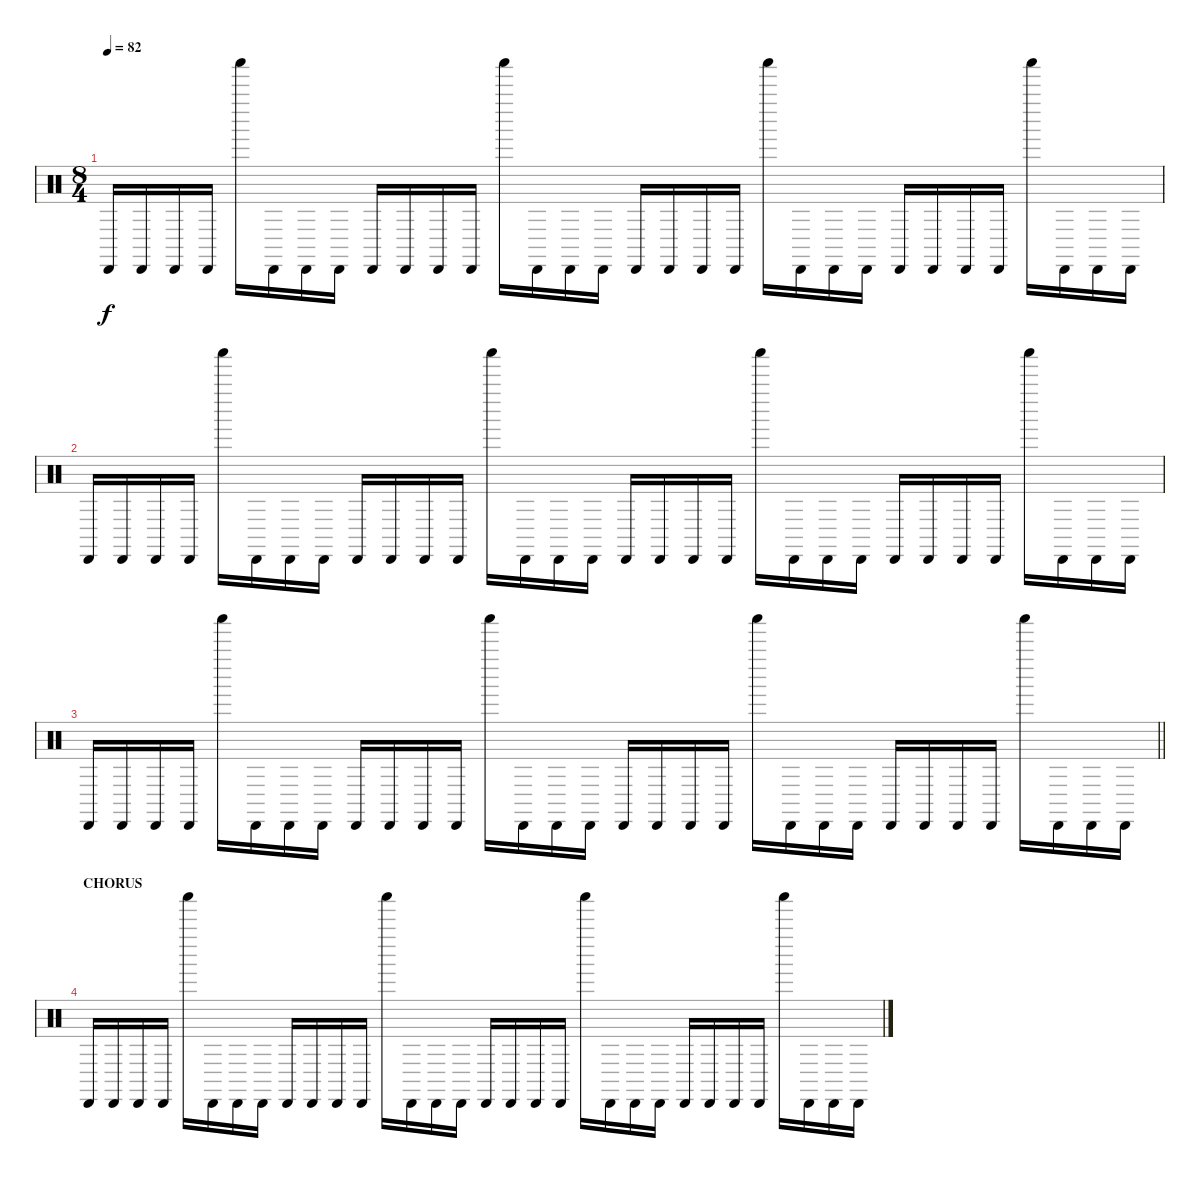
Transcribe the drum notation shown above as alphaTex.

\track "" {instrument percussion}
\staff {score}
\articulation defaults
\ts (8 4)
\tempo 82
\clef neutral
\ks c "Cabasa (hit)".16{dy f} "Cabasa (hit)".16 "Cabasa (hit)".16 "Cabasa (hit)".16 "Shaker (hit)".16 "Cabasa (hit)".16 "Cabasa (hit)".16 "Cabasa (hit)".16 "Cabasa (hit)".16 "Cabasa (hit)".16 "Cabasa (hit)".16 "Cabasa (hit)".16 "Shaker (hit)".16 "Cabasa (hit)".16 "Cabasa (hit)".16 "Cabasa (hit)".16 "Cabasa (hit)".16 "Cabasa (hit)".16 "Cabasa (hit)".16 "Cabasa (hit)".16 "Shaker (hit)".16 "Cabasa (hit)".16 "Cabasa (hit)".16 "Cabasa (hit)".16 "Cabasa (hit)".16 "Cabasa (hit)".16 "Cabasa (hit)".16 "Cabasa (hit)".16 "Shaker (hit)".16 "Cabasa (hit)".16 "Cabasa (hit)".16 "Cabasa (hit)".16
|
"Cabasa (hit)".16 "Cabasa (hit)".16 "Cabasa (hit)".16 "Cabasa (hit)".16 "Shaker (hit)".16 "Cabasa (hit)".16 "Cabasa (hit)".16 "Cabasa (hit)".16 "Cabasa (hit)".16 "Cabasa (hit)".16 "Cabasa (hit)".16 "Cabasa (hit)".16 "Shaker (hit)".16 "Cabasa (hit)".16 "Cabasa (hit)".16 "Cabasa (hit)".16 "Cabasa (hit)".16 "Cabasa (hit)".16 "Cabasa (hit)".16 "Cabasa (hit)".16 "Shaker (hit)".16 "Cabasa (hit)".16 "Cabasa (hit)".16 "Cabasa (hit)".16 "Cabasa (hit)".16 "Cabasa (hit)".16 "Cabasa (hit)".16 "Cabasa (hit)".16 "Shaker (hit)".16 "Cabasa (hit)".16 "Cabasa (hit)".16 "Cabasa (hit)".16 |
\barLineRight lightlight "Cabasa (hit)".16 "Cabasa (hit)".16 "Cabasa (hit)".16 "Cabasa (hit)".16 "Shaker (hit)".16 "Cabasa (hit)".16 "Cabasa (hit)".16 "Cabasa (hit)".16 "Cabasa (hit)".16 "Cabasa (hit)".16 "Cabasa (hit)".16 "Cabasa (hit)".16 "Shaker (hit)".16 "Cabasa (hit)".16 "Cabasa (hit)".16 "Cabasa (hit)".16 "Cabasa (hit)".16 "Cabasa (hit)".16 "Cabasa (hit)".16 "Cabasa (hit)".16 "Shaker (hit)".16 "Cabasa (hit)".16 "Cabasa (hit)".16 "Cabasa (hit)".16 "Cabasa (hit)".16 "Cabasa (hit)".16 "Cabasa (hit)".16 "Cabasa (hit)".16 "Shaker (hit)".16 "Cabasa (hit)".16 "Cabasa (hit)".16 "Cabasa (hit)".16
|
\section ("" "CHORUS")
"Cabasa (hit)".16 "Cabasa (hit)".16 "Cabasa (hit)".16 "Cabasa (hit)".16 "Shaker (hit)".16 "Cabasa (hit)".16 "Cabasa (hit)".16 "Cabasa (hit)".16 "Cabasa (hit)".16 "Cabasa (hit)".16 "Cabasa (hit)".16 "Cabasa (hit)".16 "Shaker (hit)".16 "Cabasa (hit)".16 "Cabasa (hit)".16 "Cabasa (hit)".16 "Cabasa (hit)".16 "Cabasa (hit)".16 "Cabasa (hit)".16 "Cabasa (hit)".16 "Shaker (hit)".16 "Cabasa (hit)".16 "Cabasa (hit)".16 "Cabasa (hit)".16 "Cabasa (hit)".16 "Cabasa (hit)".16 "Cabasa (hit)".16 "Cabasa (hit)".16 "Shaker (hit)".16 "Cabasa (hit)".16 "Cabasa (hit)".16 "Cabasa (hit)".16
